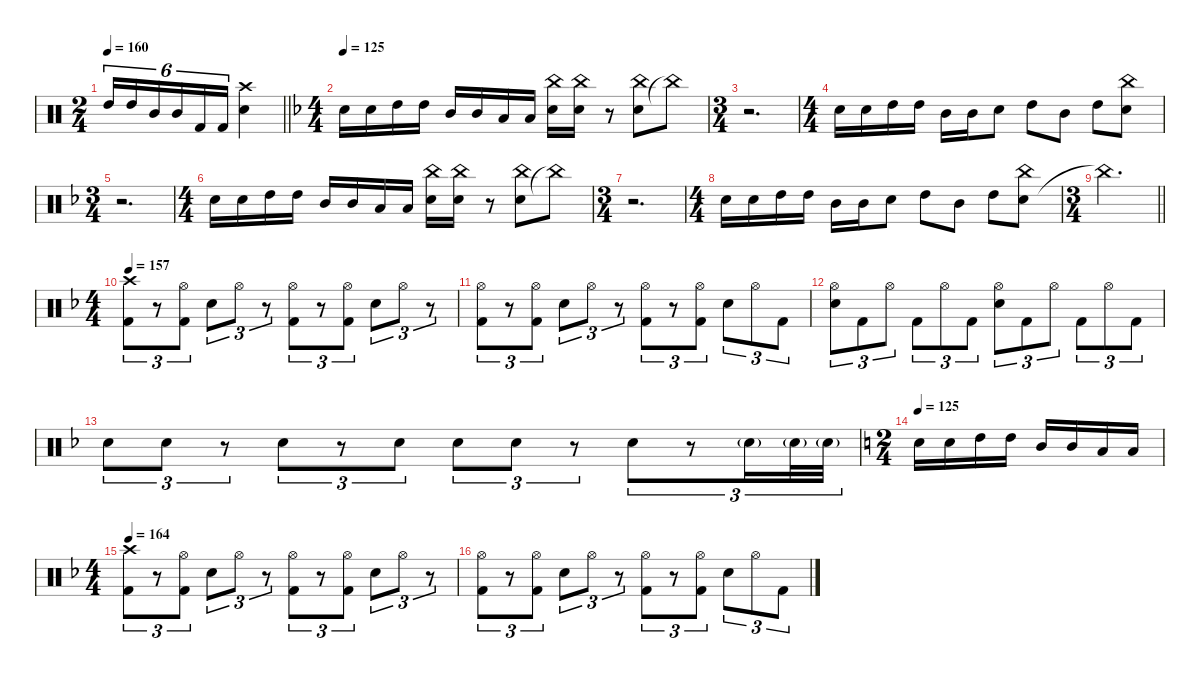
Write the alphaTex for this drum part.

\defaultSystemsLayout 4
\hideDynamics
\bracketExtendMode nobrackets
\singleTrackTrackNamePolicy hidden
\multiTrackTrackNamePolicy hidden
\otherSystemsTrackNameOrientation horizontal
\track ("Drums" "drm.") {defaultSystemsLayout 4 instrument percussion}
\staff {score}
\articulation defaults
\ts (2 4)
\beaming (8 2 2)
\tempo 160
\clef neutral
\barLineRight lightlight
\ks c "High Tom (hit)".16{tu (6 4) dy f beam Up} "High Tom (hit)".16{tu (6 4) beam Up} "Mid Tom (hit)".16{tu (6 4) beam Up} "Mid Tom (hit)".16{tu (6 4) beam Up} "Kick (hit) 2".16{tu (6 4) beam Up} "Kick (hit) 2".16{tu (6 4) beam Up}
("Crash high (hit)" "Snare (hit) 2").4{beam Down} |
\ts (4 4)
\beaming (8 2 2 2 2)
\tempo 125
\ks f "Snare (hit) 2"{acc forcenatural}.16{dy fff beam Down} "Snare (hit) 2"{acc forcenatural}.16{beam Down} "High Tom (hit)"{acc forcenatural}.16{beam Down} "High Tom (hit)"{acc forcenatural}.16{beam Down} "Mid Tom (hit)"{acc forcenatural}.16{beam Up} "Mid Tom (hit)"{acc forcenatural}.16{beam Up} "Low Tom (hit)"{acc forcenatural}.16{beam Up} "Low Tom (hit)"{acc forcenatural}.16{beam Up}
("Snare (hit) 2"{acc forcenatural} "China (hit)"{acc forcenatural}).16{beam Down} ("Snare (hit) 2"{acc forcenatural} "China (hit)"{acc forcenatural}).16{beam Down} r.8{beam Down} ("Snare (hit) 2"{acc forcenatural} "China (hit)"{acc forcenatural}).8{beam Down} "China (hit)"{t acc forcenatural}.8{dy f beam Down} |
\ts (3 4)
\beaming (8 2 2 2)
r.2{d beam Down} |
\ts (4 4)
\beaming (8 2 2 2 2)
"Snare (hit) 2"{acc forcenatural}.16{dy fff beam Down} "Snare (hit) 2"{acc forcenatural}.16{beam Down} "High Tom (hit)"{acc forcenatural}.16{beam Down} "High Tom (hit)"{acc forcenatural}.16{beam Down} "Mid Tom (hit)"{acc forcenatural}.16{beam Down} "Mid Tom (hit)"{acc forcenatural}.16{beam Down} "Snare (hit) 2"{acc forcenatural}.8{beam Down} "High Tom (hit)"{acc forcenatural}.8{beam Down} "Mid Tom (hit)"{acc forcenatural}.8{beam Down} "High Tom (hit)"{acc forcenatural}.8{beam Down} ("Snare (hit) 2"{acc forcenatural} "China (hit)"{acc forcenatural}).8{beam Down} |
\ts (3 4)
\beaming (8 2 2 2)
r.2{d beam Down} |
\ts (4 4)
\beaming (8 2 2 2 2)
"Snare (hit) 2"{acc forcenatural}.16{beam Down} "Snare (hit) 2"{acc forcenatural}.16{beam Down} "High Tom (hit)"{acc forcenatural}.16{beam Down} "High Tom (hit)"{acc forcenatural}.16{beam Down} "Mid Tom (hit)"{acc forcenatural}.16{beam Up} "Mid Tom (hit)"{acc forcenatural}.16{beam Up} "Low Tom (hit)"{acc forcenatural}.16{beam Up} "Low Tom (hit)"{acc forcenatural}.16{beam Up} ("Snare (hit) 2"{acc forcenatural} "China (hit)"{acc forcenatural}).16{beam Down} ("Snare (hit) 2"{acc forcenatural} "China (hit)"{acc forcenatural}).16{beam Down} r.8{beam Down} ("Snare (hit) 2"{acc forcenatural} "China (hit)"{acc forcenatural}).8{beam Down} "China (hit)"{t acc forcenatural}.8{dy f beam Down} |
\ts (3 4)
\beaming (8 2 2 2)
r.2{d beam Down} |
\ts (4 4)
\beaming (8 2 2 2 2)
"Snare (hit) 2"{acc forcenatural}.16{dy fff beam Down} "Snare (hit) 2"{acc forcenatural}.16{beam Down} "High Tom (hit)"{acc forcenatural}.16{beam Down} "High Tom (hit)"{acc forcenatural}.16{beam Down} "Mid Tom (hit)"{acc forcenatural}.16{beam Down} "Mid Tom (hit)"{acc forcenatural}.16{beam Down} "Snare (hit) 2"{acc forcenatural}.8{beam Down} "High Tom (hit)"{acc forcenatural}.8{beam Down} "Mid Tom (hit)"{acc forcenatural}.8{beam Down} "High Tom (hit)"{acc forcenatural}.8{beam Down} ("Snare (hit) 2"{acc forcenatural} "China (hit)"{acc forcenatural}).8{beam Down} |
\ts (3 4)
\beaming (8 2 2 2)
\barLineRight lightlight "China (hit)"{t acc forcenatural}.2{d dy f beam Down}
|
\ts (4 4)
\beaming (8 2 2 2 2)
\tempo 157
("Kick (hit) 2"{acc forcenatural} "Crash high (hit)"{acc forcenatural}).8{tu (3 2) dy fff beam Down} r.8{tu (3 2) beam Down} ("Kick (hit) 2"{acc forcenatural} "Hi-Hat (open)"{acc forcenatural}).8{tu (3 2) beam Down} "Snare (hit) 2"{acc forcenatural}.8{tu (3 2) beam Down} "Hi-Hat (open)"{acc forcenatural}.8{tu (3 2) dy mp beam Down} r.8{tu (3 2) beam Down} ("Kick (hit) 2"{acc forcenatural} "Hi-Hat (open)"{acc forcenatural}).8{tu (3 2) dy fff beam Down} r.8{tu (3 2) beam Down} ("Kick (hit) 2"{acc forcenatural} "Hi-Hat (open)"{acc forcenatural}).8{tu (3 2) beam Down} "Snare (hit) 2"{acc forcenatural}.8{tu (3 2) beam Down} "Hi-Hat (open)"{acc forcenatural}.8{tu (3 2) dy mp beam Down} r.8{tu (3 2) beam Down} |
("Kick (hit) 2"{acc forcenatural} "Hi-Hat (open)"{acc forcenatural}).8{tu (3 2) dy fff beam Down} r.8{tu (3 2) beam Down} ("Kick (hit) 2"{acc forcenatural} "Hi-Hat (open)"{acc forcenatural}).8{tu (3 2) beam Down} "Snare (hit) 2"{acc forcenatural}.8{tu (3 2) beam Down} "Hi-Hat (open)"{acc forcenatural}.8{tu (3 2) dy mp beam Down} r.8{tu (3 2) beam Down} ("Kick (hit) 2"{acc forcenatural} "Hi-Hat (open)"{acc forcenatural}).8{tu (3 2) dy fff beam Down} r.8{tu (3 2) beam Down} ("Kick (hit) 2"{acc forcenatural} "Hi-Hat (open)"{acc forcenatural}).8{tu (3 2) beam Down} "Snare (hit) 2"{acc forcenatural}.8{tu (3 2) beam Down} "Hi-Hat (open)"{acc forcenatural}.8{tu (3 2) dy mp beam Down} "Kick (hit) 2"{acc forcenatural}.8{tu (3 2) dy fff beam Down} |
("Snare (hit) 2"{acc forcenatural} "Hi-Hat (open)"{acc forcenatural}).8{tu (3 2) beam Down} "Kick (hit) 2"{acc forcenatural}.8{tu (3 2) beam Down} "Hi-Hat (open)"{acc forcenatural}.8{tu (3 2) dy mp beam Down} "Kick (hit) 2"{acc forcenatural}.8{tu (3 2) dy fff beam Down} "Hi-Hat (open)"{acc forcenatural}.8{tu (3 2) dy mp beam Down} "Kick (hit) 2"{acc forcenatural}.8{tu (3 2) dy fff beam Down} ("Snare (hit) 2"{acc forcenatural} "Hi-Hat (open)"{acc forcenatural}).8{tu (3 2) beam Down} "Kick (hit) 2"{acc forcenatural}.8{tu (3 2) beam Down} "Hi-Hat (open)"{acc forcenatural}.8{tu (3 2) dy mp beam Down} "Kick (hit) 2"{acc forcenatural}.8{tu (3 2) dy fff beam Down} "Hi-Hat (open)"{acc forcenatural}.8{tu (3 2) dy mp beam Down} "Kick (hit) 2"{acc forcenatural}.8{tu (3 2) dy fff beam Down} |
"Snare (hit) 2"{acc forcenatural}.8{tu (3 2) beam Down} "Snare (hit) 2"{acc forcenatural}.8{tu (3 2) beam Down} r.8{tu (3 2) beam Down} "Snare (hit) 2"{acc forcenatural}.8{tu (3 2) beam Down} r.8{tu (3 2) beam Down} "Snare (hit) 2"{acc forcenatural}.8{tu (3 2) beam Down} "Snare (hit) 2"{acc forcenatural}.8{tu (3 2) beam Down} "Snare (hit) 2"{acc forcenatural}.8{tu (3 2) beam Down} r.8{tu (3 2) beam Down} "Snare (hit) 2"{acc forcenatural}.8{tu (3 2) beam Down} r.8{tu (3 2) beam Down} "Snare (hit) 2"{g acc forcenatural}.16{tu (3 2) dy mf beam Down} "Snare (hit) 2"{g acc forcenatural}.32{tu (3 2) beam Down} "Snare (hit) 2"{g acc forcenatural}.32{tu (3 2) beam Down} |
\ts (2 4)
\beaming (8 2 2)
\tempo 125
\ks c "Snare (hit) 2".16{dy fff beam Down} "Snare (hit) 2".16{beam Down} "High Tom (hit)".16{beam Down} "High Tom (hit)".16{beam Down} "Mid Tom (hit)".16{beam Up} "Mid Tom (hit)".16{beam Up} "Low Tom (hit)".16{beam Up} "Low Tom (hit)".16{beam Up}
|
\ts (4 4)
\beaming (8 2 2 4)
\tempo 164
\ks f
("Kick (hit) 2"{acc forcenatural} "Crash high (hit)"{acc forcenatural}).8{tu (3 2) beam Down} r.8{tu (3 2) beam Down} ("Kick (hit) 2"{acc forcenatural} "Hi-Hat (open)"{acc forcenatural}).8{tu (3 2) beam Down} "Snare (hit) 2"{acc forcenatural}.8{tu (3 2) beam Down} "Hi-Hat (open)"{acc forcenatural}.8{tu (3 2) dy mp beam Down} r.8{tu (3 2) beam Down} ("Kick (hit) 2"{acc forcenatural} "Hi-Hat (open)"{acc forcenatural}).8{tu (3 2) dy fff beam Down} r.8{tu (3 2) beam Down} ("Kick (hit) 2"{acc forcenatural} "Hi-Hat (open)"{acc forcenatural}).8{tu (3 2) beam Down} "Snare (hit) 2"{acc forcenatural}.8{tu (3 2) beam Down} "Hi-Hat (open)"{acc forcenatural}.8{tu (3 2) dy mp beam Down} r.8{tu (3 2) beam Down} |
("Kick (hit) 2"{acc forcenatural} "Hi-Hat (open)"{acc forcenatural}).8{tu (3 2) dy fff beam Down} r.8{tu (3 2) beam Down} ("Kick (hit) 2"{acc forcenatural} "Hi-Hat (open)"{acc forcenatural}).8{tu (3 2) beam Down} "Snare (hit) 2"{acc forcenatural}.8{tu (3 2) beam Down} "Hi-Hat (open)"{acc forcenatural}.8{tu (3 2) dy mp beam Down} r.8{tu (3 2) beam Down} ("Kick (hit) 2"{acc forcenatural} "Hi-Hat (open)"{acc forcenatural}).8{tu (3 2) dy fff beam Down} r.8{tu (3 2) beam Down} ("Kick (hit) 2"{acc forcenatural} "Hi-Hat (open)"{acc forcenatural}).8{tu (3 2) beam Down} "Snare (hit) 2"{acc forcenatural}.8{tu (3 2) beam Down} "Hi-Hat (open)"{acc forcenatural}.8{tu (3 2) dy mp beam Down} "Kick (hit) 2"{acc forcenatural}.8{tu (3 2) dy fff beam Down}
